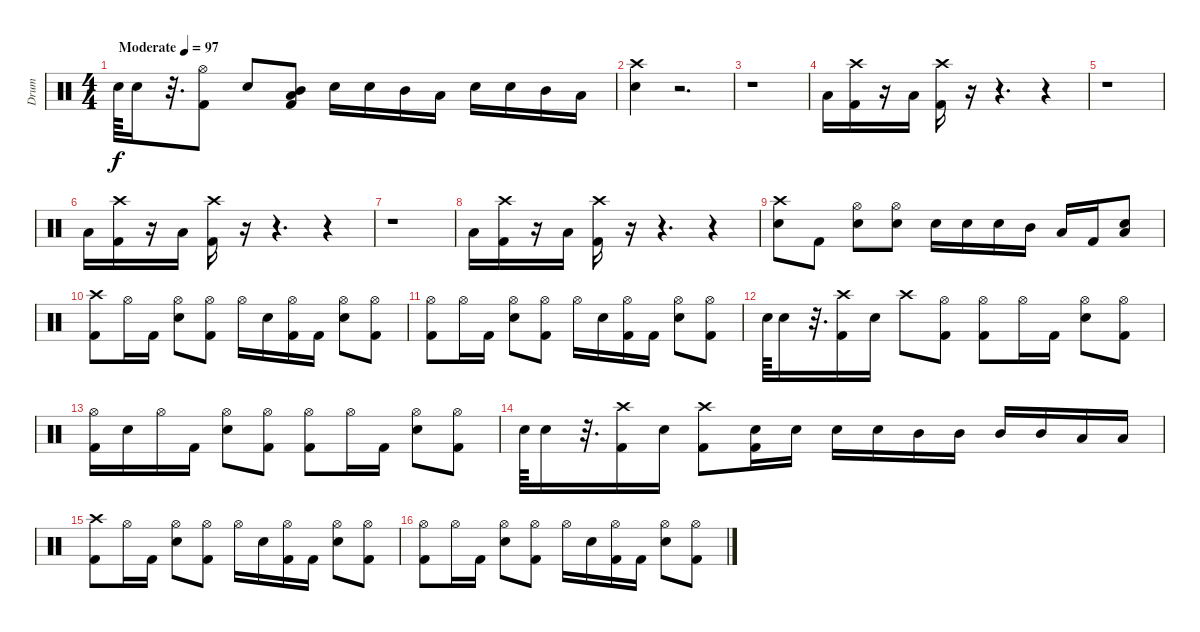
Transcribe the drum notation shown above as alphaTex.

\track ("Drum" "Drum") {instrument percussion}
\staff {score}
\articulation defaults
\ts (4 4)
\tempo (97 "Moderate")
\clef neutral
\ks c "Snare (hit) 2".64{dy f} "Snare (hit) 2".16
r.32{d} ("Hi-Hat (open)" "Kick (hit) 2").8 "Snare (hit) 2".8 ("Low Tom (hit)" "Mid Tom (hit)" "Kick (hit) 2").8 "Snare (hit) 2".16 "Snare (hit) 2".16 "Mid Tom (hit)".16 "Low Tom (hit)".16 "Snare (hit) 2".16 "Snare (hit) 2".16 "Mid Tom (hit)".16 "Low Tom (hit)".16 |
("Crash high (hit)" "Snare (hit) 2").4 r.2{d} |
r.1 |
"Low Tom (hit)".16 ("Crash high (hit)" "Kick (hit) 2").16 r.16 "Low Tom (hit)".16 ("Crash high (hit)" "Kick (hit) 2").16 r.16 r.4{d} r.4 |
r.1 |
"Low Tom (hit)".16 ("Crash high (hit)" "Kick (hit) 2").16 r.16 "Low Tom (hit)".16 ("Crash high (hit)" "Kick (hit) 2").16 r.16 r.4{d} r.4 |
r.1 |
"Low Tom (hit)".16 ("Crash high (hit)" "Kick (hit) 2").16 r.16 "Low Tom (hit)".16 ("Crash high (hit)" "Kick (hit) 2").16 r.16 r.4{d} r.4 |
("Crash high (hit)" "Snare (hit) 2").8 "Kick (hit) 2".8 ("Hi-Hat (open)" "Snare (hit) 2").8 ("Hi-Hat (open)" "Snare (hit) 2").8 "Snare (hit) 2".16 "Snare (hit) 2".16 "Snare (hit) 2".16 "Mid Tom (hit)".16 "Low Tom (hit)".16 "Kick (hit) 2".16 ("Low Tom (hit)" "Snare (hit) 2").8 |
("Crash high (hit)" "Kick (hit) 2").8 "Hi-Hat (open)".16 "Kick (hit) 2".16 ("Hi-Hat (open)" "Snare (hit) 2").8 ("Hi-Hat (open)" "Kick (hit) 2").8 "Hi-Hat (open)".16 "Snare (hit) 2".16 ("Hi-Hat (open)" "Kick (hit) 2").16 "Kick (hit) 2".16 ("Hi-Hat (open)" "Snare (hit) 2").8 ("Hi-Hat (open)" "Kick (hit) 2").8 |
("Hi-Hat (open)" "Kick (hit) 2").8 "Hi-Hat (open)".16 "Kick (hit) 2".16 ("Hi-Hat (open)" "Snare (hit) 2").8 ("Hi-Hat (open)" "Kick (hit) 2").8 "Hi-Hat (open)".16 "Snare (hit) 2".16 ("Hi-Hat (open)" "Kick (hit) 2").16 "Kick (hit) 2".16 ("Hi-Hat (open)" "Snare (hit) 2").8 ("Hi-Hat (open)" "Kick (hit) 2").8 |
"Snare (hit) 2".64 "Snare (hit) 2".16 r.32{d} ("Crash high (hit)" "Kick (hit) 2").16 "Snare (hit) 2".16 "Crash high (hit)".8 ("Hi-Hat (open)" "Kick (hit) 2").8 ("Hi-Hat (open)" "Kick (hit) 2").8 "Hi-Hat (open)".16 "Kick (hit) 2".16 ("Hi-Hat (open)" "Snare (hit) 2").8 ("Hi-Hat (open)" "Kick (hit) 2").8 |
("Hi-Hat (open)" "Kick (hit) 2").16 "Snare (hit) 2".16 "Hi-Hat (open)".16 "Kick (hit) 2".16 ("Hi-Hat (open)" "Snare (hit) 2").8 ("Hi-Hat (open)" "Kick (hit) 2").8 ("Hi-Hat (open)" "Kick (hit) 2").8 "Hi-Hat (open)".16 "Kick (hit) 2".16 ("Hi-Hat (open)" "Snare (hit) 2").8 ("Hi-Hat (open)" "Kick (hit) 2").8 |
"Snare (hit) 2".64 "Snare (hit) 2".16 r.32{d} ("Crash high (hit)" "Kick (hit) 2").16 "Snare (hit) 2".16 ("Crash high (hit)" "Kick (hit) 2").8 ("Snare (hit) 2" "Kick (hit) 2").16 "Snare (hit) 2".16 "Snare (hit) 2".16 "Snare (hit) 2".16 "Mid Tom (hit)".16 "Mid Tom (hit)".16 "Mid Tom (hit)".16 "Mid Tom (hit)".16 "Low Tom (hit)".16 "Low Tom (hit)".16 |
("Crash high (hit)" "Kick (hit) 2").8 "Hi-Hat (open)".16 "Kick (hit) 2".16 ("Hi-Hat (open)" "Snare (hit) 2").8 ("Hi-Hat (open)" "Kick (hit) 2").8 "Hi-Hat (open)".16 "Snare (hit) 2".16 ("Hi-Hat (open)" "Kick (hit) 2").16 "Kick (hit) 2".16 ("Hi-Hat (open)" "Snare (hit) 2").8 ("Hi-Hat (open)" "Kick (hit) 2").8 |
("Hi-Hat (open)" "Kick (hit) 2").8 "Hi-Hat (open)".16 "Kick (hit) 2".16 ("Hi-Hat (open)" "Snare (hit) 2").8 ("Hi-Hat (open)" "Kick (hit) 2").8 "Hi-Hat (open)".16 "Snare (hit) 2".16 ("Hi-Hat (open)" "Kick (hit) 2").16 "Kick (hit) 2".16 ("Hi-Hat (open)" "Snare (hit) 2").8 ("Hi-Hat (open)" "Kick (hit) 2").8
